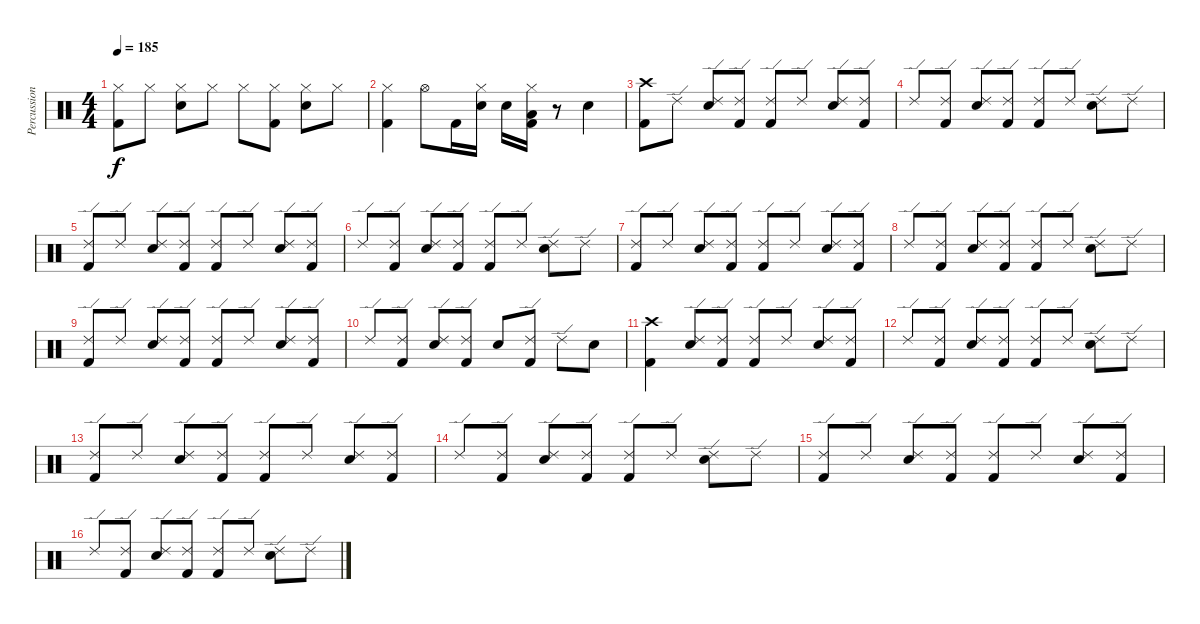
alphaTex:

\track ("Percussion" "Percussion") {instrument percussion}
\staff {score}
\articulation defaults
\ts (4 4)
\tempo 185
\clef neutral
\ks c
("Hi-Hat (closed)" "Kick (hit) 2").8{dy f} "Hi-Hat (closed)".8 ("Hi-Hat (closed)" "Snare (hit) 2").8 "Hi-Hat (closed)".8 "Hi-Hat (closed)".8 ("Hi-Hat (closed)" "Kick (hit) 2").8 ("Hi-Hat (closed)" "Snare (hit) 2").8 "Hi-Hat (closed)".8 |
("Hi-Hat (closed)" "Kick (hit) 2").4 "Hi-Hat (open)".8 "Kick (hit) 2".16 ("Hi-Hat (closed)" "Snare (hit) 2").16 "Snare (hit) 2".16 ("Hi-Hat (closed)" "Low Floor Tom (hit)" "Kick (hit) 2").16 r.8 "Snare (hit) 2".4 |
("Crash high (hit)" "Kick (hit) 2").8 "Ride (edge) 2".8 ("Ride (edge) 2" "Snare (hit) 2").8 ("Ride (edge) 2" "Kick (hit) 2").8 ("Ride (edge) 2" "Kick (hit) 2").8 "Ride (edge) 2".8 ("Ride (edge) 2" "Snare (hit) 2").8 ("Ride (edge) 2" "Kick (hit) 2").8 |
"Ride (edge) 2".8 ("Ride (edge) 2" "Kick (hit) 2").8 ("Ride (edge) 2" "Snare (hit) 2").8 ("Ride (edge) 2" "Kick (hit) 2").8 ("Ride (edge) 2" "Kick (hit) 2").8 "Ride (edge) 2".8 ("Ride (edge) 2" "Snare (hit) 2").8 "Ride (edge) 2".8 |
("Ride (edge) 2" "Kick (hit) 2").8 "Ride (edge) 2".8 ("Ride (edge) 2" "Snare (hit) 2").8 ("Ride (edge) 2" "Kick (hit) 2").8 ("Ride (edge) 2" "Kick (hit) 2").8 "Ride (edge) 2".8 ("Ride (edge) 2" "Snare (hit) 2").8 ("Ride (edge) 2" "Kick (hit) 2").8 |
"Ride (edge) 2".8 ("Ride (edge) 2" "Kick (hit) 2").8 ("Ride (edge) 2" "Snare (hit) 2").8 ("Ride (edge) 2" "Kick (hit) 2").8 ("Ride (edge) 2" "Kick (hit) 2").8 "Ride (edge) 2".8 ("Ride (edge) 2" "Snare (hit) 2").8 "Ride (edge) 2".8 |
("Ride (edge) 2" "Kick (hit) 2").8 "Ride (edge) 2".8 ("Ride (edge) 2" "Snare (hit) 2").8 ("Ride (edge) 2" "Kick (hit) 2").8 ("Ride (edge) 2" "Kick (hit) 2").8 "Ride (edge) 2".8 ("Ride (edge) 2" "Snare (hit) 2").8 ("Ride (edge) 2" "Kick (hit) 2").8 |
"Ride (edge) 2".8 ("Ride (edge) 2" "Kick (hit) 2").8 ("Ride (edge) 2" "Snare (hit) 2").8 ("Ride (edge) 2" "Kick (hit) 2").8 ("Ride (edge) 2" "Kick (hit) 2").8 "Ride (edge) 2".8 ("Ride (edge) 2" "Snare (hit) 2").8 "Ride (edge) 2".8 |
("Ride (edge) 2" "Kick (hit) 2").8 "Ride (edge) 2".8 ("Ride (edge) 2" "Snare (hit) 2").8 ("Ride (edge) 2" "Kick (hit) 2").8 ("Ride (edge) 2" "Kick (hit) 2").8 "Ride (edge) 2".8 ("Ride (edge) 2" "Snare (hit) 2").8 ("Ride (edge) 2" "Kick (hit) 2").8 |
"Ride (edge) 2".8 ("Ride (edge) 2" "Kick (hit) 2").8 ("Ride (edge) 2" "Snare (hit) 2").8 ("Ride (edge) 2" "Kick (hit) 2").8 "Snare (hit) 2".8 ("Ride (edge) 2" "Kick (hit) 2").8 "Ride (edge) 2".8 "Snare (hit) 2".8 |
("Crash high (hit)" "Kick (hit) 2").4 ("Ride (edge) 2" "Snare (hit) 2").8 ("Ride (edge) 2" "Kick (hit) 2").8 ("Ride (edge) 2" "Kick (hit) 2").8 "Ride (edge) 2".8 ("Ride (edge) 2" "Snare (hit) 2").8 ("Ride (edge) 2" "Kick (hit) 2").8 |
"Ride (edge) 2".8 ("Ride (edge) 2" "Kick (hit) 2").8 ("Ride (edge) 2" "Snare (hit) 2").8 ("Ride (edge) 2" "Kick (hit) 2").8 ("Ride (edge) 2" "Kick (hit) 2").8 "Ride (edge) 2".8 ("Ride (edge) 2" "Snare (hit) 2").8 "Ride (edge) 2".8 |
("Ride (edge) 2" "Kick (hit) 2").8 "Ride (edge) 2".8 ("Ride (edge) 2" "Snare (hit) 2").8 ("Ride (edge) 2" "Kick (hit) 2").8 ("Ride (edge) 2" "Kick (hit) 2").8 "Ride (edge) 2".8 ("Ride (edge) 2" "Snare (hit) 2").8 ("Ride (edge) 2" "Kick (hit) 2").8 |
"Ride (edge) 2".8 ("Ride (edge) 2" "Kick (hit) 2").8 ("Ride (edge) 2" "Snare (hit) 2").8 ("Ride (edge) 2" "Kick (hit) 2").8 ("Ride (edge) 2" "Kick (hit) 2").8 "Ride (edge) 2".8 ("Ride (edge) 2" "Snare (hit) 2").8 "Ride (edge) 2".8 |
("Ride (edge) 2" "Kick (hit) 2").8 "Ride (edge) 2".8 ("Ride (edge) 2" "Snare (hit) 2").8 ("Ride (edge) 2" "Kick (hit) 2").8 ("Ride (edge) 2" "Kick (hit) 2").8 "Ride (edge) 2".8 ("Ride (edge) 2" "Snare (hit) 2").8 ("Ride (edge) 2" "Kick (hit) 2").8 |
"Ride (edge) 2".8 ("Ride (edge) 2" "Kick (hit) 2").8 ("Ride (edge) 2" "Snare (hit) 2").8 ("Ride (edge) 2" "Kick (hit) 2").8 ("Ride (edge) 2" "Kick (hit) 2").8 "Ride (edge) 2".8 ("Ride (edge) 2" "Snare (hit) 2").8 "Ride (edge) 2".8
